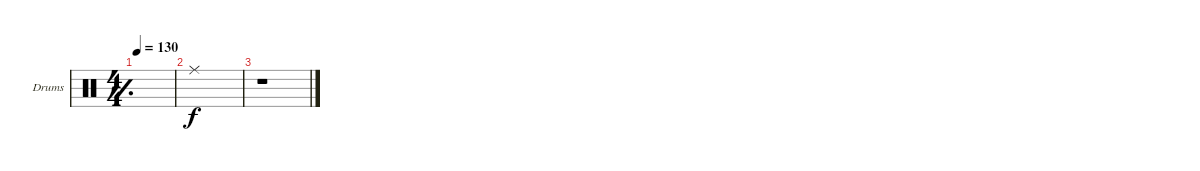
\defaultSystemsLayout 4
\bracketExtendMode groupsimilarinstruments
\firstSystemTrackNameOrientation horizontal
\otherSystemsTrackNameOrientation horizontal
\track ("Drumkit" "Drums") {instrument percussion}
\staff {score}
\articulation defaults
\ts (4 4)
\tempo 130
\clef neutral
\simile simple
\ks c
|
\simile none "Ride (middle)".1
|
r.1
